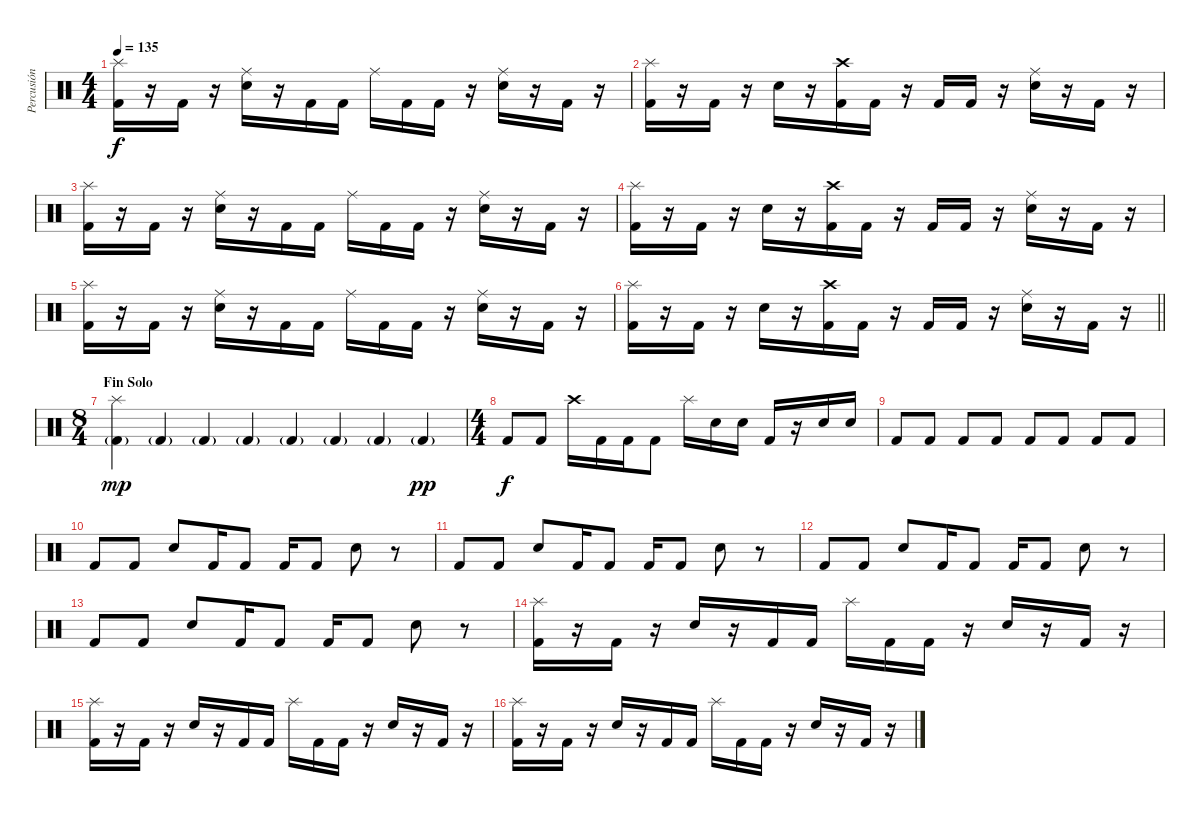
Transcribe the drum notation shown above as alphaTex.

\track ("Percusión" "Percusión") {instrument percussion}
\staff {score}
\articulation defaults
\ts (4 4)
\tempo 135
\clef neutral
\ks c
("Splash (hit)" "Kick (hit) 2").16{dy f} r.16 "Kick (hit) 2".16 r.16 ("Ride (middle)" "Electric Snare (hit)").16 r.16 "Kick (hit) 2".16 "Kick (hit) 2".16 "Ride (middle)".16 "Kick (hit) 2".16 "Kick (hit) 2".16 r.16 ("Ride (middle)" "Electric Snare (hit)").16 r.16 "Kick (hit) 2".16 r.16 |
("Splash (hit)" "Kick (hit) 2").16 r.16 "Kick (hit) 2".16 r.16 "Electric Snare (hit)".16 r.16 ("Crash high (hit)" "Kick (hit) 2").16 "Kick (hit) 2".16 r.16 "Kick (hit) 2".16 "Kick (hit) 2".16 r.16 ("Ride (middle)" "Electric Snare (hit)").16 r.16 "Kick (hit) 2".16 r.16 |
("Splash (hit)" "Kick (hit) 2").16 r.16 "Kick (hit) 2".16 r.16 ("Ride (middle)" "Electric Snare (hit)").16 r.16 "Kick (hit) 2".16 "Kick (hit) 2".16 "Ride (middle)".16 "Kick (hit) 2".16 "Kick (hit) 2".16 r.16 ("Ride (middle)" "Electric Snare (hit)").16 r.16 "Kick (hit) 2".16 r.16 |
("Splash (hit)" "Kick (hit) 2").16 r.16 "Kick (hit) 2".16 r.16 "Electric Snare (hit)".16 r.16 ("Crash high (hit)" "Kick (hit) 2").16 "Kick (hit) 2".16 r.16 "Kick (hit) 2".16 "Kick (hit) 2".16 r.16 ("Ride (middle)" "Electric Snare (hit)").16 r.16 "Kick (hit) 2".16 r.16 |
("Splash (hit)" "Kick (hit) 2").16 r.16 "Kick (hit) 2".16 r.16 ("Ride (middle)" "Electric Snare (hit)").16 r.16 "Kick (hit) 2".16 "Kick (hit) 2".16 "Ride (middle)".16 "Kick (hit) 2".16 "Kick (hit) 2".16 r.16 ("Ride (middle)" "Electric Snare (hit)").16 r.16 "Kick (hit) 2".16 r.16 |
\barLineRight lightlight
("Splash (hit)" "Kick (hit) 2").16 r.16 "Kick (hit) 2".16 r.16 "Electric Snare (hit)".16 r.16 ("Crash high (hit)" "Kick (hit) 2").16 "Kick (hit) 2".16 r.16 "Kick (hit) 2".16 "Kick (hit) 2".16 r.16 ("Ride (middle)" "Electric Snare (hit)").16 r.16 "Kick (hit) 2".16 r.16 |
\ts (8 4)
\section ("" "Fin Solo")
("Splash (hit)" "Kick (hit) 2"{g}).4{dy mp} "Kick (hit) 2"{g}.4 "Kick (hit) 2"{g}.4 "Kick (hit) 2"{g}.4 "Kick (hit) 2"{g}.4 "Kick (hit) 2"{g}.4 "Kick (hit) 2"{g}.4 "Kick (hit) 2"{g}.4{dy pp} |
\ts (4 4)
"Kick (hit) 2".8{dy f} "Kick (hit) 2".8 "Crash high (hit)".16 "Kick (hit) 2".16 "Kick (hit) 2".16 "Kick (hit) 2".8 "Splash (hit)".16 "Electric Snare (hit)".16 "Electric Snare (hit)".16 "Kick (hit) 2".16 r.16 "Electric Snare (hit)".16 "Electric Snare (hit)".16 |
"Kick (hit) 2".8 "Kick (hit) 2".8 "Kick (hit) 2".8 "Kick (hit) 2".8 "Kick (hit) 2".8 "Kick (hit) 2".8 "Kick (hit) 2".8 "Kick (hit) 2".8 |
"Kick (hit) 2".8 "Kick (hit) 2".8 "Electric Snare (hit)".8 "Kick (hit) 2".16 "Kick (hit) 2".8 "Kick (hit) 2".16 "Kick (hit) 2".8 "Electric Snare (hit)".8 r.8 |
"Kick (hit) 2".8 "Kick (hit) 2".8 "Electric Snare (hit)".8 "Kick (hit) 2".16 "Kick (hit) 2".8 "Kick (hit) 2".16 "Kick (hit) 2".8 "Electric Snare (hit)".8 r.8 |
"Kick (hit) 2".8 "Kick (hit) 2".8 "Electric Snare (hit)".8 "Kick (hit) 2".16 "Kick (hit) 2".8 "Kick (hit) 2".16 "Kick (hit) 2".8 "Electric Snare (hit)".8 r.8 |
"Kick (hit) 2".8 "Kick (hit) 2".8 "Electric Snare (hit)".8 "Kick (hit) 2".16 "Kick (hit) 2".8 "Kick (hit) 2".16 "Kick (hit) 2".8 "Electric Snare (hit)".8 r.8 |
("Splash (hit)" "Kick (hit) 2").16 r.16 "Kick (hit) 2".16 r.16 "Electric Snare (hit)".16 r.16 "Kick (hit) 2".16 "Kick (hit) 2".16 "Splash (hit)".16 "Kick (hit) 2".16 "Kick (hit) 2".16 r.16 "Electric Snare (hit)".16 r.16 "Kick (hit) 2".16 r.16 |
("Splash (hit)" "Kick (hit) 2").16 r.16 "Kick (hit) 2".16 r.16 "Electric Snare (hit)".16 r.16 "Kick (hit) 2".16 "Kick (hit) 2".16 "Splash (hit)".16 "Kick (hit) 2".16 "Kick (hit) 2".16 r.16 "Electric Snare (hit)".16 r.16 "Kick (hit) 2".16 r.16 |
("Splash (hit)" "Kick (hit) 2").16 r.16 "Kick (hit) 2".16 r.16 "Electric Snare (hit)".16 r.16 "Kick (hit) 2".16 "Kick (hit) 2".16 "Splash (hit)".16 "Kick (hit) 2".16 "Kick (hit) 2".16 r.16 "Electric Snare (hit)".16 r.16 "Kick (hit) 2".16 r.16
